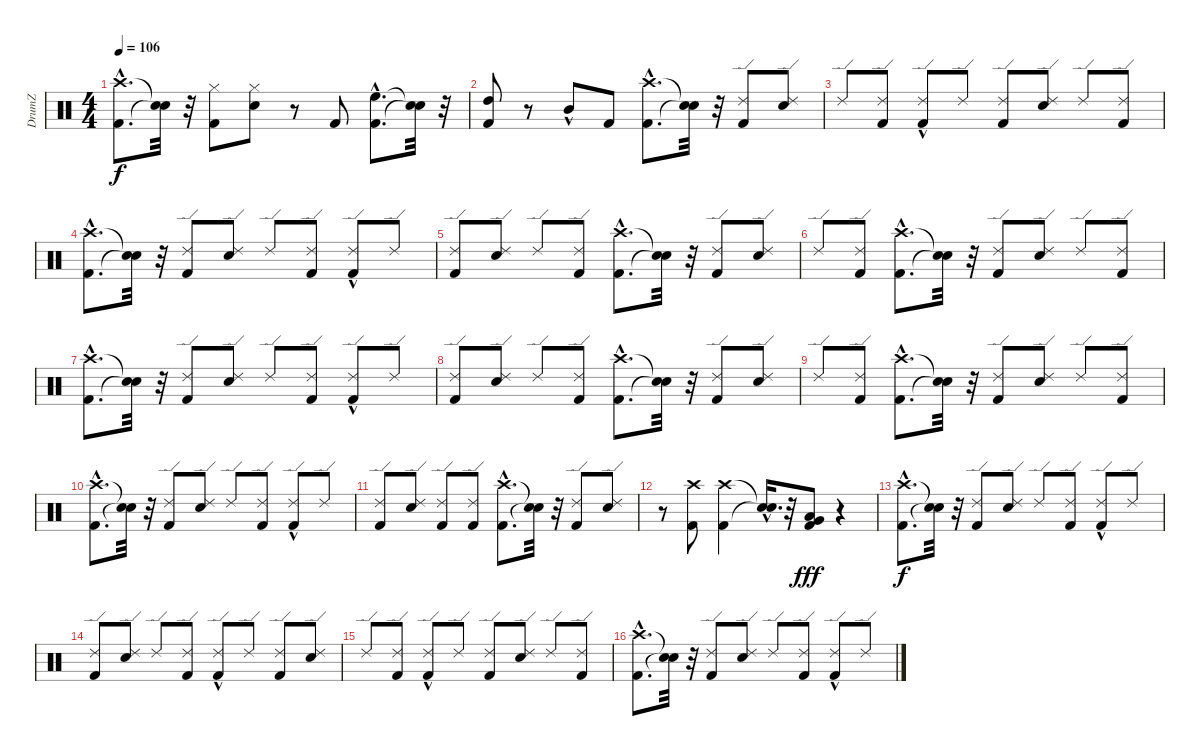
\track ("DrumZ" "DrumZ") {instrument percussion}
\staff {score}
\articulation defaults
\ts (4 4)
\tempo 106
\clef neutral
\ks c
("Crash high (hit)"{hac} "Kick (hit) 2"{hac}).8{d dy f} ("Snare (hit)"{t} "Snare (hit)"{t}).32 r.32 ("Hi-Hat (closed)" "Kick (hit) 2").8 ("Hi-Hat (closed)" "Electric Snare (hit)").8 r.8 "Kick (hit) 2".8 ("Kick (hit) 2"{hac} "High Floor Tom (hit)"{hac}).8{d} ("Snare (hit)"{t} "Snare (hit)"{t}).32 r.32 |
("Kick (hit) 2" "High Tom (hit)").8 r.8 "Mid Tom (hit)"{hac}.8 "Kick (hit) 2".8 ("Crash high (hit)"{hac} "Kick (hit) 2"{hac}).8{d} ("Snare (hit)"{t} "Snare (hit)"{t}).32 r.32 ("Kick (hit) 2" "Ride (edge) 2").8 ("Electric Snare (hit)" "Ride (edge) 2").8 |
"Ride (edge) 2".8 ("Kick (hit) 2" "Ride (edge) 2").8 ("Kick (hit) 2"{hac} "Ride (edge) 2").8 "Ride (edge) 2".8 ("Kick (hit) 2" "Ride (edge) 2").8 ("Electric Snare (hit)" "Ride (edge) 2").8 "Ride (edge) 2".8 ("Kick (hit) 2" "Ride (edge) 2").8 |
("Crash high (hit)"{hac} "Kick (hit) 2"{hac}).8{d} ("Snare (hit)"{t} "Snare (hit)"{t}).32 r.32 ("Kick (hit) 2" "Ride (edge) 2").8 ("Electric Snare (hit)" "Ride (edge) 2").8 "Ride (edge) 2".8 ("Kick (hit) 2" "Ride (edge) 2").8 ("Kick (hit) 2"{hac} "Ride (edge) 2").8 "Ride (edge) 2".8 |
("Kick (hit) 2" "Ride (edge) 2").8 ("Electric Snare (hit)" "Ride (edge) 2").8 "Ride (edge) 2".8 ("Kick (hit) 2" "Ride (edge) 2").8 ("Crash high (hit)"{hac} "Kick (hit) 2"{hac}).8{d} ("Snare (hit)"{t} "Snare (hit)"{t}).32 r.32 ("Kick (hit) 2" "Ride (edge) 2").8 ("Electric Snare (hit)" "Ride (edge) 2").8 |
"Ride (edge) 2".8 ("Kick (hit) 2" "Ride (edge) 2").8 ("Crash high (hit)"{hac} "Kick (hit) 2"{hac}).8{d} ("Snare (hit)"{t} "Snare (hit)"{t}).32 r.32 ("Kick (hit) 2" "Ride (edge) 2").8 ("Electric Snare (hit)" "Ride (edge) 2").8 "Ride (edge) 2".8 ("Kick (hit) 2" "Ride (edge) 2").8 |
("Crash high (hit)"{hac} "Kick (hit) 2"{hac}).8{d} ("Snare (hit)"{t} "Snare (hit)"{t}).32 r.32 ("Kick (hit) 2" "Ride (edge) 2").8 ("Electric Snare (hit)" "Ride (edge) 2").8 "Ride (edge) 2".8 ("Kick (hit) 2" "Ride (edge) 2").8 ("Kick (hit) 2"{hac} "Ride (edge) 2").8 "Ride (edge) 2".8 |
("Kick (hit) 2" "Ride (edge) 2").8 ("Electric Snare (hit)" "Ride (edge) 2").8 "Ride (edge) 2".8 ("Kick (hit) 2" "Ride (edge) 2").8 ("Crash high (hit)"{hac} "Kick (hit) 2"{hac}).8{d} ("Snare (hit)"{t} "Snare (hit)"{t}).32 r.32 ("Kick (hit) 2" "Ride (edge) 2").8 ("Electric Snare (hit)" "Ride (edge) 2").8 |
"Ride (edge) 2".8 ("Kick (hit) 2" "Ride (edge) 2").8 ("Kick (hit) 2"{hac} "Crash high (hit)"{hac}).8{d} ("Snare (hit)"{t} "Snare (hit)"{t}).32 r.32 ("Ride (edge) 2" "Kick (hit) 2").8 ("Electric Snare (hit)" "Ride (edge) 2").8 "Ride (edge) 2".8 ("Ride (edge) 2" "Kick (hit) 2").8 |
("Kick (hit) 2"{hac} "Crash high (hit)"{hac}).8{d} ("Snare (hit)"{t} "Snare (hit)"{t}).32 r.32 ("Kick (hit) 2" "Ride (edge) 2").8 ("Electric Snare (hit)" "Ride (edge) 2").8 "Ride (edge) 2".8 ("Kick (hit) 2" "Ride (edge) 2").8 ("Kick (hit) 2"{hac} "Ride (edge) 2").8 "Ride (edge) 2".8 |
("Kick (hit) 2" "Ride (edge) 2").8 ("Electric Snare (hit)" "Ride (edge) 2").8 ("Kick (hit) 2" "Ride (edge) 2").8 ("Kick (hit) 2" "Ride (edge) 2").8 ("Crash high (hit)"{hac} "Kick (hit) 2"{hac}).8{d} ("Snare (hit)"{t} "Snare (hit)"{t}).32 r.32 ("Kick (hit) 2" "Ride (edge) 2").8 ("Electric Snare (hit)" "Ride (edge) 2").8 |
r.8 ("Crash high (hit)" "Kick (hit) 2").8 ("Crash high (hit)" "Kick (hit) 2").4 ("Snare (hit)"{hac t} "Snare (hit)"{hac t}).16{d} r.32 ("Very Low Tom (hit)" "Kick (hit) 2" "Low Floor Tom (hit)").8{dy fff} r.4 |
("Kick (hit) 2"{hac} "Crash high (hit)"{hac}).8{d dy f} ("Snare (hit)"{t} "Snare (hit)"{t}).32 r.32 ("Kick (hit) 2" "Ride (edge) 2").8 ("Electric Snare (hit)" "Ride (edge) 2").8 "Ride (edge) 2".8 ("Kick (hit) 2" "Ride (edge) 2").8 ("Kick (hit) 2"{hac} "Ride (edge) 2").8 "Ride (edge) 2".8 |
("Kick (hit) 2" "Ride (edge) 2").8 ("Electric Snare (hit)" "Ride (edge) 2").8 "Ride (edge) 2".8 ("Kick (hit) 2" "Ride (edge) 2").8 ("Kick (hit) 2"{hac} "Ride (edge) 2").8 "Ride (edge) 2".8 ("Kick (hit) 2" "Ride (edge) 2").8 ("Electric Snare (hit)" "Ride (edge) 2").8 |
"Ride (edge) 2".8 ("Kick (hit) 2" "Ride (edge) 2").8 ("Kick (hit) 2"{hac} "Ride (edge) 2").8 "Ride (edge) 2".8 ("Kick (hit) 2" "Ride (edge) 2").8 ("Electric Snare (hit)" "Ride (edge) 2").8 "Ride (edge) 2".8 ("Kick (hit) 2" "Ride (edge) 2").8 |
("Kick (hit) 2"{hac} "Crash high (hit)"{hac}).8{d} ("Snare (hit)"{t} "Snare (hit)"{t}).32 r.32 ("Kick (hit) 2" "Ride (edge) 2").8 ("Electric Snare (hit)" "Ride (edge) 2").8 "Ride (edge) 2".8 ("Kick (hit) 2" "Ride (edge) 2").8 ("Kick (hit) 2"{hac} "Ride (edge) 2").8 "Ride (edge) 2".8
